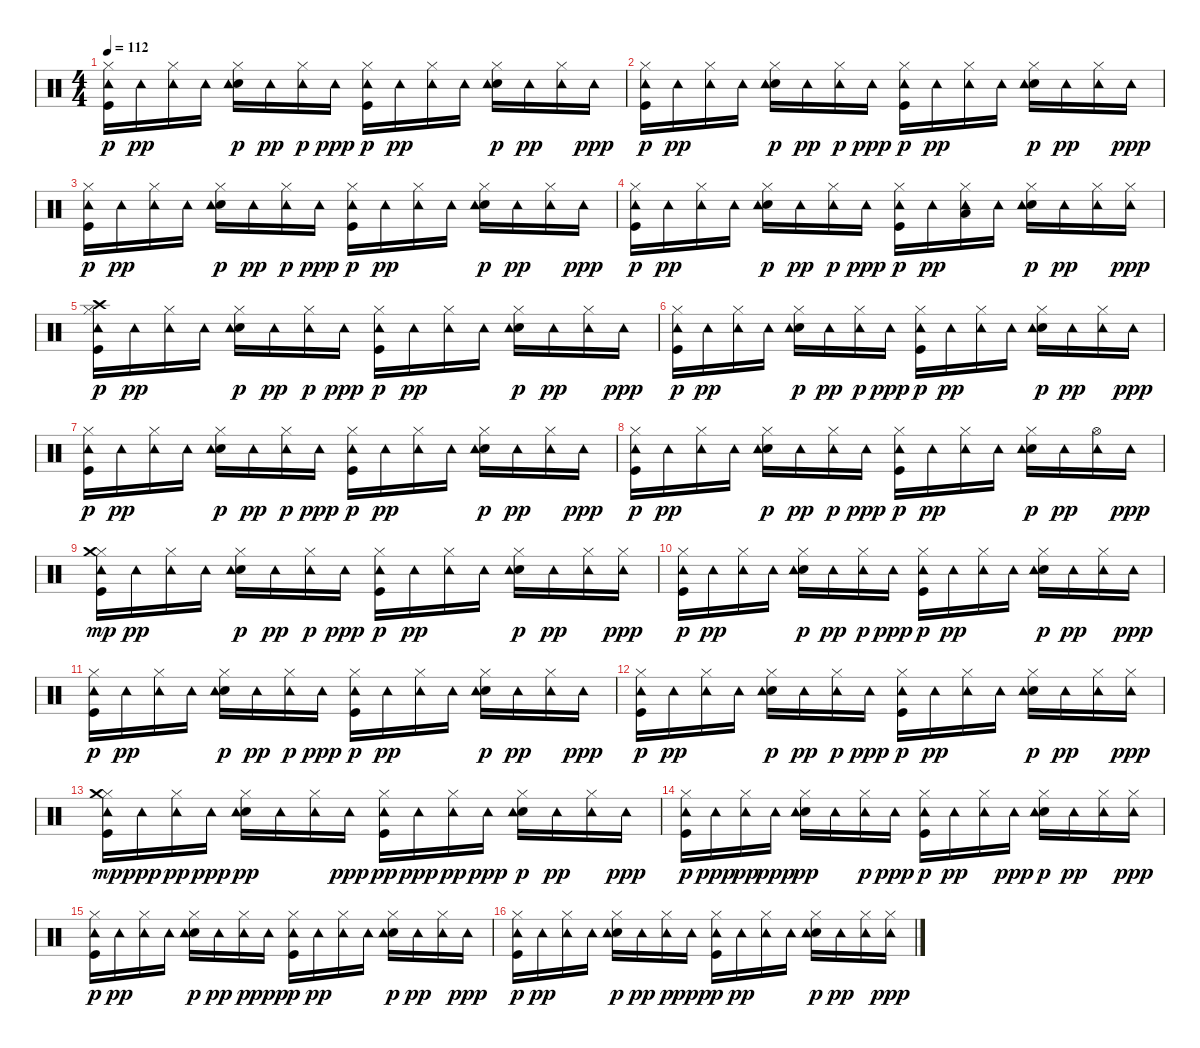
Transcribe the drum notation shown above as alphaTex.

\track "" {instrument percussion}
\staff {score}
\articulation defaults
\ts (4 4)
\tempo 112
\clef neutral
\ks c
("Kick (hit)" "Hi-Hat (closed)" "Tambourine (hit)").16{dy p} "Tambourine (hit)".16{dy pp} ("Hi-Hat (closed)" "Tambourine (hit)").16 "Tambourine (hit)".16 ("Electric Snare (hit)" "Hi-Hat (closed)" "Tambourine (hit)").16{dy p} "Tambourine (hit)".16{dy pp} ("Hi-Hat (closed)" "Tambourine (hit)").16{dy p} "Tambourine (hit)".16{dy ppp} ("Kick (hit)" "Hi-Hat (closed)" "Tambourine (hit)").16{dy p} "Tambourine (hit)".16{dy pp} ("Hi-Hat (closed)" "Tambourine (hit)").16 "Tambourine (hit)".16 ("Electric Snare (hit)" "Hi-Hat (closed)" "Tambourine (hit)").16{dy p} "Tambourine (hit)".16{dy pp} ("Hi-Hat (closed)" "Tambourine (hit)").16 "Tambourine (hit)".16{dy ppp} |
("Kick (hit)" "Hi-Hat (closed)" "Tambourine (hit)").16{dy p} "Tambourine (hit)".16{dy pp} ("Hi-Hat (closed)" "Tambourine (hit)").16 "Tambourine (hit)".16 ("Electric Snare (hit)" "Hi-Hat (closed)" "Tambourine (hit)").16{dy p} "Tambourine (hit)".16{dy pp} ("Hi-Hat (closed)" "Tambourine (hit)").16{dy p} "Tambourine (hit)".16{dy ppp} ("Kick (hit)" "Hi-Hat (closed)" "Tambourine (hit)").16{dy p} "Tambourine (hit)".16{dy pp} ("Hi-Hat (closed)" "Tambourine (hit)").16 "Tambourine (hit)".16 ("Electric Snare (hit)" "Hi-Hat (closed)" "Tambourine (hit)").16{dy p} "Tambourine (hit)".16{dy pp} ("Hi-Hat (closed)" "Tambourine (hit)").16 "Tambourine (hit)".16{dy ppp} |
("Kick (hit)" "Hi-Hat (closed)" "Tambourine (hit)").16{dy p} "Tambourine (hit)".16{dy pp} ("Hi-Hat (closed)" "Tambourine (hit)").16 "Tambourine (hit)".16 ("Electric Snare (hit)" "Hi-Hat (closed)" "Tambourine (hit)").16{dy p} "Tambourine (hit)".16{dy pp} ("Hi-Hat (closed)" "Tambourine (hit)").16{dy p} "Tambourine (hit)".16{dy ppp} ("Kick (hit)" "Hi-Hat (closed)" "Tambourine (hit)").16{dy p} "Tambourine (hit)".16{dy pp} ("Hi-Hat (closed)" "Tambourine (hit)").16 "Tambourine (hit)".16 ("Electric Snare (hit)" "Hi-Hat (closed)" "Tambourine (hit)").16{dy p} "Tambourine (hit)".16{dy pp} ("Hi-Hat (closed)" "Tambourine (hit)").16 "Tambourine (hit)".16{dy ppp} |
("Kick (hit)" "Hi-Hat (closed)" "Tambourine (hit)").16{dy p} "Tambourine (hit)".16{dy pp} ("Hi-Hat (closed)" "Tambourine (hit)").16 "Tambourine (hit)".16 ("Electric Snare (hit)" "Hi-Hat (closed)" "Tambourine (hit)").16{dy p} "Tambourine (hit)".16{dy pp} ("Hi-Hat (closed)" "Tambourine (hit)").16{dy p} "Tambourine (hit)".16{dy ppp} ("Kick (hit)" "Hi-Hat (closed)" "Tambourine (hit)").16{dy p} "Tambourine (hit)".16{dy pp} ("Hi-Hat (closed)" "Low Tom (hit)" "Tambourine (hit)").16 "Tambourine (hit)".16 ("Electric Snare (hit)" "Hi-Hat (closed)" "Tambourine (hit)").16{dy p} "Tambourine (hit)".16{dy pp} ("Hi-Hat (closed)" "Tambourine (hit)").16 ("Hi-Hat (closed)" "Tambourine (hit)").16{dy ppp} |
("Kick (hit)" "Hi-Hat (closed)" "Crash high (hit)" "Tambourine (hit)").16{dy p} "Tambourine (hit)".16{dy pp} ("Hi-Hat (closed)" "Tambourine (hit)").16 "Tambourine (hit)".16 ("Electric Snare (hit)" "Hi-Hat (closed)" "Tambourine (hit)").16{dy p} "Tambourine (hit)".16{dy pp} ("Hi-Hat (closed)" "Tambourine (hit)").16{dy p} "Tambourine (hit)".16{dy ppp} ("Kick (hit)" "Hi-Hat (closed)" "Tambourine (hit)").16{dy p} "Tambourine (hit)".16{dy pp} ("Hi-Hat (closed)" "Tambourine (hit)").16 "Tambourine (hit)".16 ("Electric Snare (hit)" "Hi-Hat (closed)" "Tambourine (hit)").16{dy p} "Tambourine (hit)".16{dy pp} ("Hi-Hat (closed)" "Tambourine (hit)").16 "Tambourine (hit)".16{dy ppp} |
("Kick (hit)" "Hi-Hat (closed)" "Tambourine (hit)").16{dy p} "Tambourine (hit)".16{dy pp} ("Hi-Hat (closed)" "Tambourine (hit)").16 "Tambourine (hit)".16 ("Electric Snare (hit)" "Hi-Hat (closed)" "Tambourine (hit)").16{dy p} "Tambourine (hit)".16{dy pp} ("Hi-Hat (closed)" "Tambourine (hit)").16{dy p} "Tambourine (hit)".16{dy ppp} ("Kick (hit)" "Hi-Hat (closed)" "Tambourine (hit)").16{dy p} "Tambourine (hit)".16{dy pp} ("Hi-Hat (closed)" "Tambourine (hit)").16 "Tambourine (hit)".16 ("Electric Snare (hit)" "Hi-Hat (closed)" "Tambourine (hit)").16{dy p} "Tambourine (hit)".16{dy pp} ("Hi-Hat (closed)" "Tambourine (hit)").16 "Tambourine (hit)".16{dy ppp} |
("Kick (hit)" "Hi-Hat (closed)" "Tambourine (hit)").16{dy p} "Tambourine (hit)".16{dy pp} ("Hi-Hat (closed)" "Tambourine (hit)").16 "Tambourine (hit)".16 ("Electric Snare (hit)" "Hi-Hat (closed)" "Tambourine (hit)").16{dy p} "Tambourine (hit)".16{dy pp} ("Hi-Hat (closed)" "Tambourine (hit)").16{dy p} "Tambourine (hit)".16{dy ppp} ("Kick (hit)" "Hi-Hat (closed)" "Tambourine (hit)").16{dy p} "Tambourine (hit)".16{dy pp} ("Hi-Hat (closed)" "Tambourine (hit)").16 "Tambourine (hit)".16 ("Electric Snare (hit)" "Hi-Hat (closed)" "Tambourine (hit)").16{dy p} "Tambourine (hit)".16{dy pp} ("Hi-Hat (closed)" "Tambourine (hit)").16 "Tambourine (hit)".16{dy ppp} |
("Kick (hit)" "Hi-Hat (closed)" "Tambourine (hit)").16{dy p} "Tambourine (hit)".16{dy pp} ("Hi-Hat (closed)" "Tambourine (hit)").16 "Tambourine (hit)".16 ("Electric Snare (hit)" "Hi-Hat (closed)" "Tambourine (hit)").16{dy p} "Tambourine (hit)".16{dy pp} ("Hi-Hat (closed)" "Tambourine (hit)").16{dy p} "Tambourine (hit)".16{dy ppp} ("Kick (hit)" "Hi-Hat (closed)" "Tambourine (hit)").16{dy p} "Tambourine (hit)".16{dy pp} ("Hi-Hat (closed)" "Tambourine (hit)").16 "Tambourine (hit)".16 ("Electric Snare (hit)" "Hi-Hat (closed)" "Tambourine (hit)").16{dy p} "Tambourine (hit)".16{dy pp} ("Hi-Hat (open)" "Tambourine (hit)").16 "Tambourine (hit)".16{dy ppp} |
("Kick (hit)" "Hi-Hat (closed)" "Tambourine (hit)" "Crash medium (hit)").16{dy mp} "Tambourine (hit)".16{dy pp} ("Hi-Hat (closed)" "Tambourine (hit)").16 "Tambourine (hit)".16 ("Electric Snare (hit)" "Hi-Hat (closed)" "Tambourine (hit)").16{dy p} "Tambourine (hit)".16{dy pp} ("Hi-Hat (closed)" "Tambourine (hit)").16{dy p} "Tambourine (hit)".16{dy ppp} ("Kick (hit)" "Hi-Hat (closed)" "Tambourine (hit)").16{dy p} "Tambourine (hit)".16{dy pp} ("Hi-Hat (closed)" "Tambourine (hit)").16 "Tambourine (hit)".16 ("Electric Snare (hit)" "Hi-Hat (closed)" "Tambourine (hit)").16{dy p} "Tambourine (hit)".16{dy pp} ("Hi-Hat (closed)" "Tambourine (hit)").16 ("Hi-Hat (closed)" "Tambourine (hit)").16{dy ppp} |
("Kick (hit)" "Hi-Hat (closed)" "Tambourine (hit)").16{dy p} "Tambourine (hit)".16{dy pp} ("Hi-Hat (closed)" "Tambourine (hit)").16 "Tambourine (hit)".16 ("Electric Snare (hit)" "Hi-Hat (closed)" "Tambourine (hit)").16{dy p} "Tambourine (hit)".16{dy pp} ("Hi-Hat (closed)" "Tambourine (hit)").16{dy p} "Tambourine (hit)".16{dy ppp} ("Kick (hit)" "Hi-Hat (closed)" "Tambourine (hit)").16{dy p} "Tambourine (hit)".16{dy pp} ("Hi-Hat (closed)" "Tambourine (hit)").16 "Tambourine (hit)".16 ("Electric Snare (hit)" "Hi-Hat (closed)" "Tambourine (hit)").16{dy p} "Tambourine (hit)".16{dy pp} ("Hi-Hat (closed)" "Tambourine (hit)").16 "Tambourine (hit)".16{dy ppp} |
("Kick (hit)" "Hi-Hat (closed)" "Tambourine (hit)").16{dy p} "Tambourine (hit)".16{dy pp} ("Hi-Hat (closed)" "Tambourine (hit)").16 "Tambourine (hit)".16 ("Electric Snare (hit)" "Hi-Hat (closed)" "Tambourine (hit)").16{dy p} "Tambourine (hit)".16{dy pp} ("Hi-Hat (closed)" "Tambourine (hit)").16{dy p} "Tambourine (hit)".16{dy ppp} ("Kick (hit)" "Hi-Hat (closed)" "Tambourine (hit)").16{dy p} "Tambourine (hit)".16{dy pp} ("Hi-Hat (closed)" "Tambourine (hit)").16 "Tambourine (hit)".16 ("Electric Snare (hit)" "Hi-Hat (closed)" "Tambourine (hit)").16{dy p} "Tambourine (hit)".16{dy pp} ("Hi-Hat (closed)" "Tambourine (hit)").16 "Tambourine (hit)".16{dy ppp} |
("Kick (hit)" "Hi-Hat (closed)" "Tambourine (hit)").16{dy p} "Tambourine (hit)".16{dy pp} ("Hi-Hat (closed)" "Tambourine (hit)").16 "Tambourine (hit)".16 ("Electric Snare (hit)" "Hi-Hat (closed)" "Tambourine (hit)").16{dy p} "Tambourine (hit)".16{dy pp} ("Hi-Hat (closed)" "Tambourine (hit)").16{dy p} "Tambourine (hit)".16{dy ppp} ("Kick (hit)" "Hi-Hat (closed)" "Tambourine (hit)").16{dy p} "Tambourine (hit)".16{dy pp} ("Hi-Hat (closed)" "Tambourine (hit)").16 "Tambourine (hit)".16 ("Electric Snare (hit)" "Hi-Hat (closed)" "Tambourine (hit)").16{dy p} "Tambourine (hit)".16{dy pp} ("Hi-Hat (closed)" "Tambourine (hit)").16 ("Hi-Hat (closed)" "Tambourine (hit)").16{dy ppp} |
("Kick (hit)" "Hi-Hat (closed)" "Tambourine (hit)" "Crash medium (hit)").16{dy mp} "Tambourine (hit)".16{dy ppp} ("Hi-Hat (closed)" "Tambourine (hit)").16{dy pp} "Tambourine (hit)".16{dy ppp} ("Electric Snare (hit)" "Hi-Hat (closed)" "Tambourine (hit)").16{dy pp} "Tambourine (hit)".16 ("Hi-Hat (closed)" "Tambourine (hit)").16 "Tambourine (hit)".16{dy ppp} ("Kick (hit)" "Hi-Hat (closed)" "Tambourine (hit)").16{dy pp} "Tambourine (hit)".16{dy ppp} ("Hi-Hat (closed)" "Tambourine (hit)").16{dy pp} "Tambourine (hit)".16{dy ppp} ("Electric Snare (hit)" "Hi-Hat (closed)" "Tambourine (hit)").16{dy p} "Tambourine (hit)".16{dy pp} ("Hi-Hat (closed)" "Tambourine (hit)").16 "Tambourine (hit)".16{dy ppp} |
("Kick (hit)" "Hi-Hat (closed)" "Tambourine (hit)").16{dy p} "Tambourine (hit)".16{dy ppp} ("Hi-Hat (closed)" "Tambourine (hit)").16{dy pp} "Tambourine (hit)".16{dy ppp} ("Electric Snare (hit)" "Hi-Hat (closed)" "Tambourine (hit)").16{dy pp} "Tambourine (hit)".16 ("Hi-Hat (closed)" "Tambourine (hit)").16{dy p} "Tambourine (hit)".16{dy ppp} ("Kick (hit)" "Hi-Hat (closed)" "Tambourine (hit)").16{dy p} "Tambourine (hit)".16{dy pp} ("Hi-Hat (closed)" "Tambourine (hit)").16 "Tambourine (hit)".16{dy ppp} ("Electric Snare (hit)" "Hi-Hat (closed)" "Tambourine (hit)").16{dy p} "Tambourine (hit)".16{dy pp} ("Hi-Hat (closed)" "Tambourine (hit)").16 ("Hi-Hat (closed)" "Tambourine (hit)").16{dy ppp} |
("Kick (hit)" "Hi-Hat (closed)" "Tambourine (hit)").16{dy p} "Tambourine (hit)".16{dy pp} ("Hi-Hat (closed)" "Tambourine (hit)").16 "Tambourine (hit)".16 ("Electric Snare (hit)" "Hi-Hat (closed)" "Tambourine (hit)").16{dy p} "Tambourine (hit)".16{dy pp} ("Hi-Hat (closed)" "Tambourine (hit)").16{dy p} "Tambourine (hit)".16{dy ppp} ("Kick (hit)" "Hi-Hat (closed)" "Tambourine (hit)").16{dy p} "Tambourine (hit)".16{dy pp} ("Hi-Hat (closed)" "Tambourine (hit)").16 "Tambourine (hit)".16 ("Electric Snare (hit)" "Hi-Hat (closed)" "Tambourine (hit)").16{dy p} "Tambourine (hit)".16{dy pp} ("Hi-Hat (closed)" "Tambourine (hit)").16 "Tambourine (hit)".16{dy ppp} |
("Kick (hit)" "Hi-Hat (closed)" "Tambourine (hit)").16{dy p} "Tambourine (hit)".16{dy pp} ("Hi-Hat (closed)" "Tambourine (hit)").16 "Tambourine (hit)".16 ("Electric Snare (hit)" "Hi-Hat (closed)" "Tambourine (hit)").16{dy p} "Tambourine (hit)".16{dy pp} ("Hi-Hat (closed)" "Tambourine (hit)").16{dy p} "Tambourine (hit)".16{dy ppp} ("Kick (hit)" "Hi-Hat (closed)" "Tambourine (hit)").16{dy p} "Tambourine (hit)".16{dy pp} ("Hi-Hat (closed)" "Tambourine (hit)").16 "Tambourine (hit)".16 ("Electric Snare (hit)" "Hi-Hat (closed)" "Tambourine (hit)").16{dy p} "Tambourine (hit)".16{dy pp} ("Hi-Hat (closed)" "Tambourine (hit)").16 ("Hi-Hat (closed)" "Tambourine (hit)").16{dy ppp}
